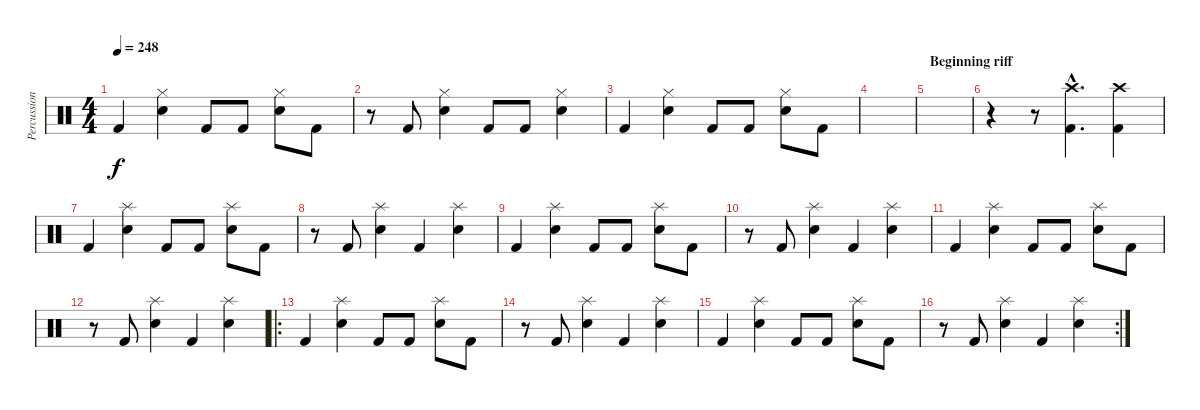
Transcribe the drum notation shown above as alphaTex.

\track ("Percussion" "Percussion") {instrument percussion}
\staff {score}
\articulation defaults
\ts (4 4)
\tempo 248
\clef neutral
\ks c "Kick (hit) 2".4{dy f}
("Hi-Hat (closed)" "Snare (hit) 2").4 "Kick (hit) 2".8 "Kick (hit) 2".8 ("Hi-Hat (closed)" "Snare (hit) 2").8 "Kick (hit) 2".8 |
r.8 "Kick (hit) 2".8 ("Hi-Hat (closed)" "Snare (hit) 2").4 "Kick (hit) 2".8 "Kick (hit) 2".8 ("Hi-Hat (closed)" "Snare (hit) 2").4 |
"Kick (hit) 2".4 ("Hi-Hat (closed)" "Snare (hit) 2").4 "Kick (hit) 2".8 "Kick (hit) 2".8 ("Hi-Hat (closed)" "Snare (hit) 2").8 "Kick (hit) 2".8 |
|
\section ("" "Beginning riff")
|
r.4 r.8 ("Crash high (hit)"{hac} "Kick (hit) 2"{hac}).4{d} ("Crash high (hit)" "Kick (hit) 2").4 |
"Kick (hit) 2".4 ("Splash (hit)" "Snare (hit) 2").4 "Kick (hit) 2".8 "Kick (hit) 2".8 ("Splash (hit)" "Snare (hit) 2").8 "Kick (hit) 2".8 |
r.8 "Kick (hit) 2".8 ("Splash (hit)" "Snare (hit) 2").4 "Kick (hit) 2".4 ("Splash (hit)" "Snare (hit) 2").4 |
"Kick (hit) 2".4 ("Splash (hit)" "Snare (hit) 2").4 "Kick (hit) 2".8 "Kick (hit) 2".8 ("Splash (hit)" "Snare (hit) 2").8 "Kick (hit) 2".8 |
r.8 "Kick (hit) 2".8 ("Splash (hit)" "Snare (hit) 2").4 "Kick (hit) 2".4 ("Splash (hit)" "Snare (hit) 2").4 |
"Kick (hit) 2".4 ("Splash (hit)" "Snare (hit) 2").4 "Kick (hit) 2".8 "Kick (hit) 2".8 ("Splash (hit)" "Snare (hit) 2").8 "Kick (hit) 2".8 |
r.8 "Kick (hit) 2".8 ("Splash (hit)" "Snare (hit) 2").4 "Kick (hit) 2".4 ("Splash (hit)" "Snare (hit) 2").4 |
\ro "Kick (hit) 2".4
("Splash (hit)" "Snare (hit) 2").4 "Kick (hit) 2".8 "Kick (hit) 2".8 ("Splash (hit)" "Snare (hit) 2").8 "Kick (hit) 2".8 |
r.8 "Kick (hit) 2".8 ("Splash (hit)" "Snare (hit) 2").4 "Kick (hit) 2".4 ("Splash (hit)" "Snare (hit) 2").4 |
"Kick (hit) 2".4 ("Splash (hit)" "Snare (hit) 2").4 "Kick (hit) 2".8 "Kick (hit) 2".8 ("Splash (hit)" "Snare (hit) 2").8 "Kick (hit) 2".8 |
\rc 2
r.8 "Kick (hit) 2".8 ("Splash (hit)" "Snare (hit) 2").4 "Kick (hit) 2".4 ("Splash (hit)" "Snare (hit) 2").4
